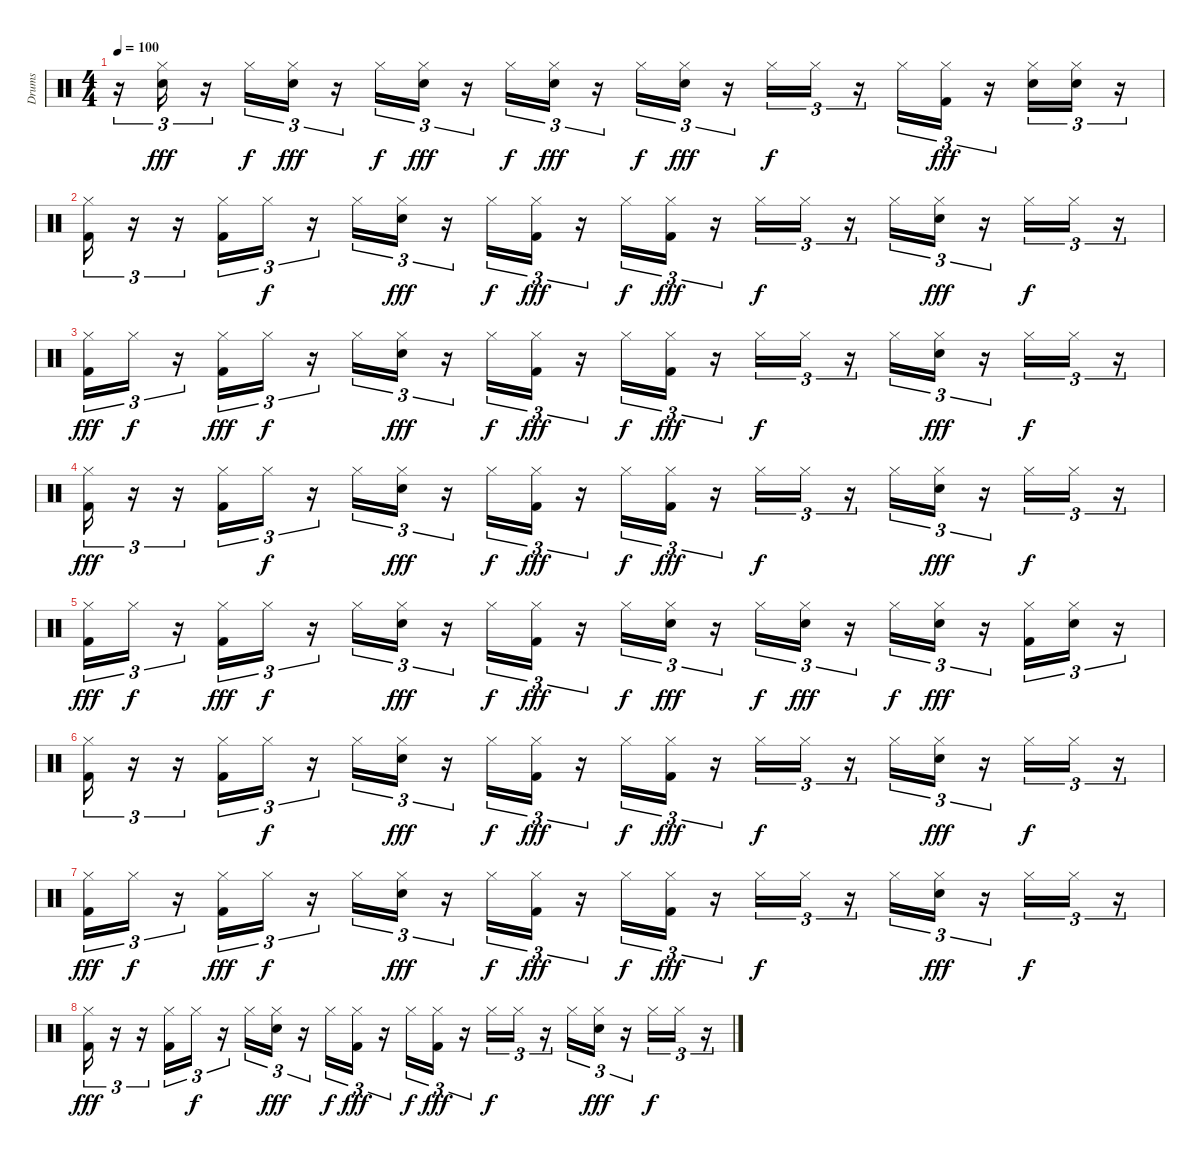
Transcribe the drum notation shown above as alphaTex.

\track ("Drums" "Drums") {instrument percussion}
\staff {score}
\articulation defaults
\ts (4 4)
\tempo 100
\clef neutral
\ks c
r.16{tu (3 2) dy f} ("Hi-Hat (closed)" "Snare (hit) 2").16{tu (3 2) dy fff} r.16{tu (3 2)} "Hi-Hat (closed)".16{tu (3 2) dy f} ("Hi-Hat (closed)" "Snare (hit) 2").16{tu (3 2) dy fff} r.16{tu (3 2)} "Hi-Hat (closed)".16{tu (3 2) dy f} ("Hi-Hat (closed)" "Snare (hit) 2").16{tu (3 2) dy fff} r.16{tu (3 2)} "Hi-Hat (closed)".16{tu (3 2) dy f} ("Hi-Hat (closed)" "Snare (hit) 2").16{tu (3 2) dy fff} r.16{tu (3 2)} "Hi-Hat (closed)".16{tu (3 2) dy f} ("Hi-Hat (closed)" "Snare (hit) 2").16{tu (3 2) dy fff} r.16{tu (3 2)} "Hi-Hat (closed)".16{tu (3 2) dy f} "Hi-Hat (closed)".16{tu (3 2)} r.16{tu (3 2)} "Hi-Hat (closed)".16{tu (3 2)} ("Hi-Hat (closed)" "Kick (hit) 2").16{tu (3 2) dy fff} r.16{tu (3 2)} ("Hi-Hat (closed)" "Snare (hit) 2").16{tu (3 2)} ("Hi-Hat (closed)" "Snare (hit) 2").16{tu (3 2)} r.16{tu (3 2)} |
("Hi-Hat (closed)" "Kick (hit) 2").16{tu (3 2)} r.16{tu (3 2)} r.16{tu (3 2)} ("Hi-Hat (closed)" "Kick (hit) 2").16{tu (3 2)} "Hi-Hat (closed)".16{tu (3 2) dy f} r.16{tu (3 2)} "Hi-Hat (closed)".16{tu (3 2)} ("Hi-Hat (closed)" "Snare (hit) 2").16{tu (3 2) dy fff} r.16{tu (3 2)} "Hi-Hat (closed)".16{tu (3 2) dy f} ("Hi-Hat (closed)" "Kick (hit) 2").16{tu (3 2) dy fff} r.16{tu (3 2)} "Hi-Hat (closed)".16{tu (3 2) dy f} ("Hi-Hat (closed)" "Kick (hit) 2").16{tu (3 2) dy fff} r.16{tu (3 2)} "Hi-Hat (closed)".16{tu (3 2) dy f} "Hi-Hat (closed)".16{tu (3 2)} r.16{tu (3 2)} "Hi-Hat (closed)".16{tu (3 2)} ("Hi-Hat (closed)" "Snare (hit) 2").16{tu (3 2) dy fff} r.16{tu (3 2)} "Hi-Hat (closed)".16{tu (3 2) dy f} "Hi-Hat (closed)".16{tu (3 2)} r.16{tu (3 2)} |
("Hi-Hat (closed)" "Kick (hit) 2").16{tu (3 2) dy fff} "Hi-Hat (closed)".16{tu (3 2) dy f} r.16{tu (3 2)} ("Hi-Hat (closed)" "Kick (hit) 2").16{tu (3 2) dy fff} "Hi-Hat (closed)".16{tu (3 2) dy f} r.16{tu (3 2)} "Hi-Hat (closed)".16{tu (3 2)} ("Hi-Hat (closed)" "Snare (hit) 2").16{tu (3 2) dy fff} r.16{tu (3 2)} "Hi-Hat (closed)".16{tu (3 2) dy f} ("Hi-Hat (closed)" "Kick (hit) 2").16{tu (3 2) dy fff} r.16{tu (3 2)} "Hi-Hat (closed)".16{tu (3 2) dy f} ("Hi-Hat (closed)" "Kick (hit) 2").16{tu (3 2) dy fff} r.16{tu (3 2)} "Hi-Hat (closed)".16{tu (3 2) dy f} "Hi-Hat (closed)".16{tu (3 2)} r.16{tu (3 2)} "Hi-Hat (closed)".16{tu (3 2)} ("Hi-Hat (closed)" "Snare (hit) 2").16{tu (3 2) dy fff} r.16{tu (3 2)} "Hi-Hat (closed)".16{tu (3 2) dy f} "Hi-Hat (closed)".16{tu (3 2)} r.16{tu (3 2)} |
("Hi-Hat (closed)" "Kick (hit) 2").16{tu (3 2) dy fff} r.16{tu (3 2)} r.16{tu (3 2)} ("Hi-Hat (closed)" "Kick (hit) 2").16{tu (3 2)} "Hi-Hat (closed)".16{tu (3 2) dy f} r.16{tu (3 2)} "Hi-Hat (closed)".16{tu (3 2)} ("Hi-Hat (closed)" "Snare (hit) 2").16{tu (3 2) dy fff} r.16{tu (3 2)} "Hi-Hat (closed)".16{tu (3 2) dy f} ("Hi-Hat (closed)" "Kick (hit) 2").16{tu (3 2) dy fff} r.16{tu (3 2)} "Hi-Hat (closed)".16{tu (3 2) dy f} ("Hi-Hat (closed)" "Kick (hit) 2").16{tu (3 2) dy fff} r.16{tu (3 2)} "Hi-Hat (closed)".16{tu (3 2) dy f} "Hi-Hat (closed)".16{tu (3 2)} r.16{tu (3 2)} "Hi-Hat (closed)".16{tu (3 2)} ("Hi-Hat (closed)" "Snare (hit) 2").16{tu (3 2) dy fff} r.16{tu (3 2)} "Hi-Hat (closed)".16{tu (3 2) dy f} "Hi-Hat (closed)".16{tu (3 2)} r.16{tu (3 2)} |
("Hi-Hat (closed)" "Kick (hit) 2").16{tu (3 2) dy fff} "Hi-Hat (closed)".16{tu (3 2) dy f} r.16{tu (3 2)} ("Hi-Hat (closed)" "Kick (hit) 2").16{tu (3 2) dy fff} "Hi-Hat (closed)".16{tu (3 2) dy f} r.16{tu (3 2)} "Hi-Hat (closed)".16{tu (3 2)} ("Hi-Hat (closed)" "Snare (hit) 2").16{tu (3 2) dy fff} r.16{tu (3 2)} "Hi-Hat (closed)".16{tu (3 2) dy f} ("Hi-Hat (closed)" "Kick (hit) 2").16{tu (3 2) dy fff} r.16{tu (3 2)} "Hi-Hat (closed)".16{tu (3 2) dy f} ("Hi-Hat (closed)" "Snare (hit) 2").16{tu (3 2) dy fff} r.16{tu (3 2)} "Hi-Hat (closed)".16{tu (3 2) dy f} ("Hi-Hat (closed)" "Snare (hit) 2").16{tu (3 2) dy fff} r.16{tu (3 2)} "Hi-Hat (closed)".16{tu (3 2) dy f} ("Hi-Hat (closed)" "Snare (hit) 2").16{tu (3 2) dy fff} r.16{tu (3 2)} ("Hi-Hat (closed)" "Kick (hit) 2").16{tu (3 2)} ("Hi-Hat (closed)" "Snare (hit) 2").16{tu (3 2)} r.16{tu (3 2)} |
("Hi-Hat (closed)" "Kick (hit) 2").16{tu (3 2)} r.16{tu (3 2)} r.16{tu (3 2)} ("Hi-Hat (closed)" "Kick (hit) 2").16{tu (3 2)} "Hi-Hat (closed)".16{tu (3 2) dy f} r.16{tu (3 2)} "Hi-Hat (closed)".16{tu (3 2)} ("Hi-Hat (closed)" "Snare (hit) 2").16{tu (3 2) dy fff} r.16{tu (3 2)} "Hi-Hat (closed)".16{tu (3 2) dy f} ("Hi-Hat (closed)" "Kick (hit) 2").16{tu (3 2) dy fff} r.16{tu (3 2)} "Hi-Hat (closed)".16{tu (3 2) dy f} ("Hi-Hat (closed)" "Kick (hit) 2").16{tu (3 2) dy fff} r.16{tu (3 2)} "Hi-Hat (closed)".16{tu (3 2) dy f} "Hi-Hat (closed)".16{tu (3 2)} r.16{tu (3 2)} "Hi-Hat (closed)".16{tu (3 2)} ("Hi-Hat (closed)" "Snare (hit) 2").16{tu (3 2) dy fff} r.16{tu (3 2)} "Hi-Hat (closed)".16{tu (3 2) dy f} "Hi-Hat (closed)".16{tu (3 2)} r.16{tu (3 2)} |
("Hi-Hat (closed)" "Kick (hit) 2").16{tu (3 2) dy fff} "Hi-Hat (closed)".16{tu (3 2) dy f} r.16{tu (3 2)} ("Hi-Hat (closed)" "Kick (hit) 2").16{tu (3 2) dy fff} "Hi-Hat (closed)".16{tu (3 2) dy f} r.16{tu (3 2)} "Hi-Hat (closed)".16{tu (3 2)} ("Hi-Hat (closed)" "Snare (hit) 2").16{tu (3 2) dy fff} r.16{tu (3 2)} "Hi-Hat (closed)".16{tu (3 2) dy f} ("Hi-Hat (closed)" "Kick (hit) 2").16{tu (3 2) dy fff} r.16{tu (3 2)} "Hi-Hat (closed)".16{tu (3 2) dy f} ("Hi-Hat (closed)" "Kick (hit) 2").16{tu (3 2) dy fff} r.16{tu (3 2)} "Hi-Hat (closed)".16{tu (3 2) dy f} "Hi-Hat (closed)".16{tu (3 2)} r.16{tu (3 2)} "Hi-Hat (closed)".16{tu (3 2)} ("Hi-Hat (closed)" "Snare (hit) 2").16{tu (3 2) dy fff} r.16{tu (3 2)} "Hi-Hat (closed)".16{tu (3 2) dy f} "Hi-Hat (closed)".16{tu (3 2)} r.16{tu (3 2)} |
("Hi-Hat (closed)" "Kick (hit) 2").16{tu (3 2) dy fff} r.16{tu (3 2)} r.16{tu (3 2)} ("Hi-Hat (closed)" "Kick (hit) 2").16{tu (3 2)} "Hi-Hat (closed)".16{tu (3 2) dy f} r.16{tu (3 2)} "Hi-Hat (closed)".16{tu (3 2)} ("Hi-Hat (closed)" "Snare (hit) 2").16{tu (3 2) dy fff} r.16{tu (3 2)} "Hi-Hat (closed)".16{tu (3 2) dy f} ("Hi-Hat (closed)" "Kick (hit) 2").16{tu (3 2) dy fff} r.16{tu (3 2)} "Hi-Hat (closed)".16{tu (3 2) dy f} ("Hi-Hat (closed)" "Kick (hit) 2").16{tu (3 2) dy fff} r.16{tu (3 2)} "Hi-Hat (closed)".16{tu (3 2) dy f} "Hi-Hat (closed)".16{tu (3 2)} r.16{tu (3 2)} "Hi-Hat (closed)".16{tu (3 2)} ("Hi-Hat (closed)" "Snare (hit) 2").16{tu (3 2) dy fff} r.16{tu (3 2)} "Hi-Hat (closed)".16{tu (3 2) dy f} "Hi-Hat (closed)".16{tu (3 2)} r.16{tu (3 2)}
